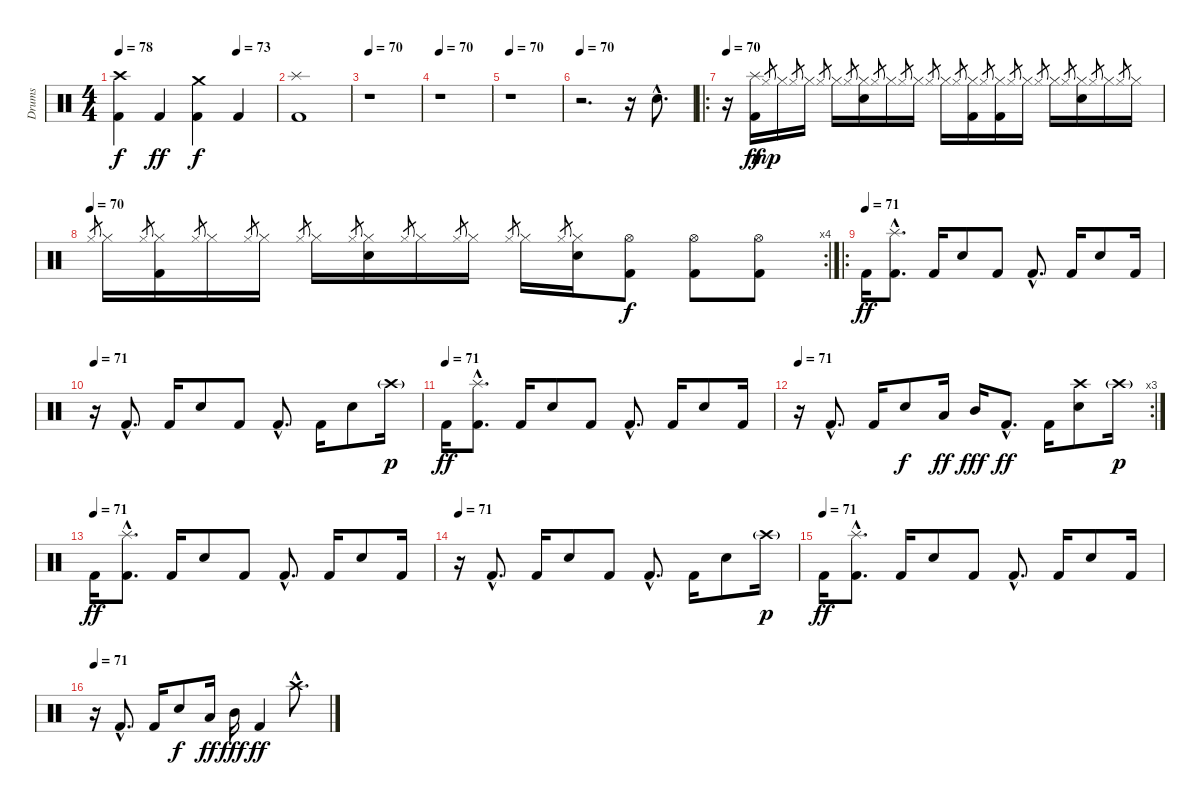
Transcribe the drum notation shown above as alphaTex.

\track ("Drums" "Drums") {instrument percussion}
\staff {score}
\articulation defaults
\ts (4 4)
\tempo 78
\tempo (73 0.75)
\clef neutral
\ks c
("Crash high (hit)" "Kick (hit) 2").4{dy f} "Kick (hit) 2".4{dy ff} ("Crash medium (hit)" "Kick (hit) 2").4{dy f} "Kick (hit) 2".4 |
("Splash (hit)" "Kick (hit) 2").1 |
\tempo 70
r.1 |
\tempo 70
r.1 |
\tempo 70
r.1 |
\tempo 70
r.2{d} r.16 "Electric Snare (hit)"{hac}.8{d} |
\ro
\tempo 70
r.16 ("Splash (hit)" "Kick (hit) 2").16{dy ff} "Hi-Hat (closed)".8{gr dy mp} "Hi-Hat (closed)".16 "Hi-Hat (closed)".8{gr} "Hi-Hat (closed)".16 "Hi-Hat (closed)".8{gr} "Hi-Hat (closed)".16 "Hi-Hat (closed)".8{gr} ("Hi-Hat (closed)" "Electric Snare (hit)").16 "Hi-Hat (closed)".8{gr} "Hi-Hat (closed)".16 "Hi-Hat (closed)".8{gr} "Hi-Hat (closed)".16 "Hi-Hat (closed)".8{gr} "Hi-Hat (closed)".16 "Hi-Hat (closed)".8{gr} ("Hi-Hat (closed)" "Kick (hit) 2").16 "Hi-Hat (closed)".8{gr} ("Hi-Hat (closed)" "Kick (hit) 2").16 "Hi-Hat (closed)".8{gr} "Hi-Hat (closed)".16 "Hi-Hat (closed)".8{gr} "Hi-Hat (closed)".16 "Hi-Hat (closed)".8{gr} ("Hi-Hat (closed)" "Electric Snare (hit)").16 "Hi-Hat (closed)".8{gr} "Hi-Hat (closed)".16 "Hi-Hat (closed)".8{gr} "Hi-Hat (closed)".16 |
\rc 4
\tempo (70)
"Hi-Hat (closed)".8{gr} "Hi-Hat (closed)".16 "Hi-Hat (closed)".8{gr} ("Hi-Hat (closed)" "Kick (hit) 2").16 "Hi-Hat (closed)".8{gr} "Hi-Hat (closed)".16 "Hi-Hat (closed)".8{gr} "Hi-Hat (closed)".16 "Hi-Hat (closed)".8{gr} "Hi-Hat (closed)".16 "Hi-Hat (closed)".8{gr} ("Hi-Hat (closed)" "Electric Snare (hit)").16 "Hi-Hat (closed)".8{gr} "Hi-Hat (closed)".16 "Hi-Hat (closed)".8{gr} "Hi-Hat (closed)".16 "Hi-Hat (closed)".8{gr} "Hi-Hat (closed)".16 "Hi-Hat (closed)".8{gr} ("Hi-Hat (closed)" "Electric Snare (hit)").16 ("Hi-Hat (open)" "Kick (hit) 2").8{dy f} ("Hi-Hat (open)" "Kick (hit) 2").8 ("Hi-Hat (open)" "Kick (hit) 2").8 |
\ro
\tempo (71)
"Kick (hit) 2".16{dy ff volume 16} ("Splash (hit)"{hac} "Kick (hit) 2"{hac}).8{d} "Kick (hit) 2".16 "Electric Snare (hit)".8 "Kick (hit) 2".8 "Kick (hit) 2"{hac}.8{d} "Kick (hit) 2".16 "Electric Snare (hit)".8 "Kick (hit) 2".16 |
\tempo 71
r.16 "Kick (hit) 2"{hac}.8{d} "Kick (hit) 2".16 "Electric Snare (hit)".8 "Kick (hit) 2".8 "Kick (hit) 2"{hac}.8{d} "Kick (hit) 2".16 "Electric Snare (hit)".8 "Crash high (hit)"{g}.16{dy p} |
\tempo (71)
"Kick (hit) 2".16{dy ff} ("Splash (hit)"{hac} "Kick (hit) 2"{hac}).8{d} "Kick (hit) 2".16 "Electric Snare (hit)".8 "Kick (hit) 2".8 "Kick (hit) 2"{hac}.8{d} "Kick (hit) 2".16 "Electric Snare (hit)".8 "Kick (hit) 2".16 |
\rc 3
\tempo 71
r.16 "Kick (hit) 2"{hac}.8{d} "Kick (hit) 2".16 "Electric Snare (hit)".8{dy f} "Low Tom (hit)".16{dy ff} "Mid Tom (hit)".16{dy fff} "Kick (hit) 2"{hac}.8{d dy ff} "Kick (hit) 2".16 ("Crash high (hit)" "Electric Snare (hit)").8 "Crash high (hit)"{g}.16{dy p} |
\tempo (71)
"Kick (hit) 2".16{dy ff volume 16} ("Splash (hit)"{hac} "Kick (hit) 2"{hac}).8{d} "Kick (hit) 2".16 "Electric Snare (hit)".8 "Kick (hit) 2".8 "Kick (hit) 2"{hac}.8{d} "Kick (hit) 2".16 "Electric Snare (hit)".8 "Kick (hit) 2".16 |
\tempo 71
r.16 "Kick (hit) 2"{hac}.8{d} "Kick (hit) 2".16 "Electric Snare (hit)".8 "Kick (hit) 2".8 "Kick (hit) 2"{hac}.8{d} "Kick (hit) 2".16 "Electric Snare (hit)".8 "Crash high (hit)"{g}.16{dy p} |
\tempo (71)
"Kick (hit) 2".16{dy ff} ("Splash (hit)"{hac} "Kick (hit) 2"{hac}).8{d} "Kick (hit) 2".16 "Electric Snare (hit)".8 "Kick (hit) 2".8 "Kick (hit) 2"{hac}.8{d} "Kick (hit) 2".16 "Electric Snare (hit)".8 "Kick (hit) 2".16 |
\tempo 71
r.16 "Kick (hit) 2"{hac}.8{d} "Kick (hit) 2".16 "Electric Snare (hit)".8{dy f} "Low Tom (hit)".16{dy ff} "Mid Tom (hit)".16{dy fff} "Kick (hit) 2".4{dy ff} "Crash high (hit)"{hac}.8{d}
